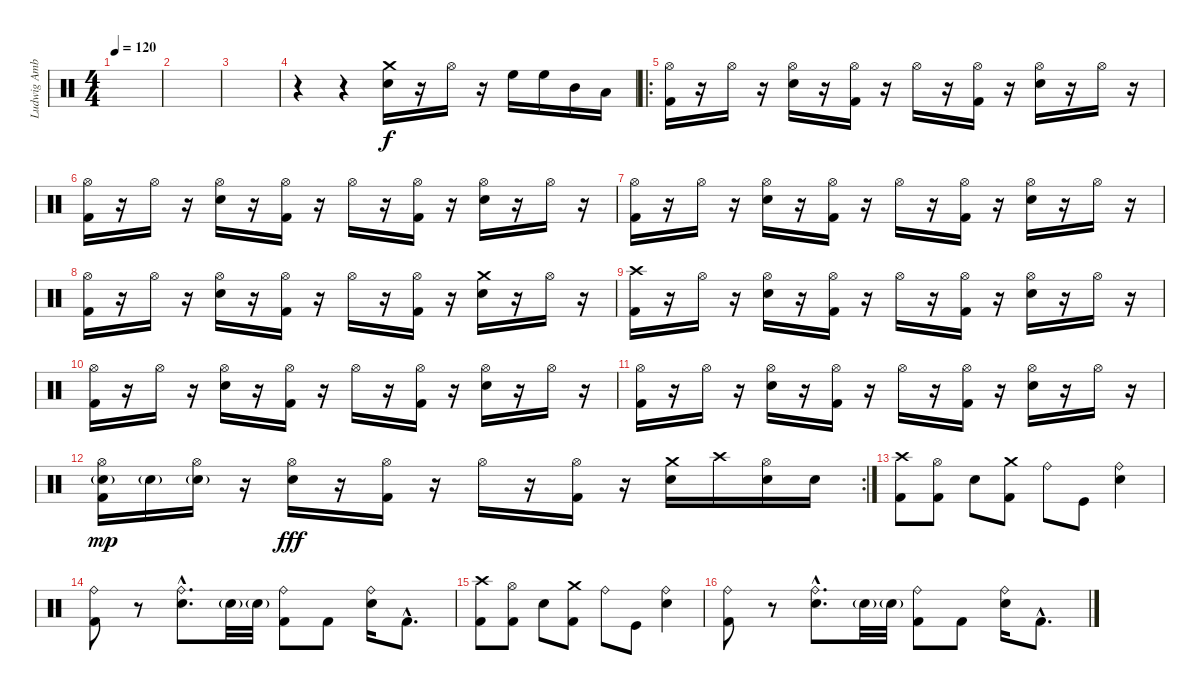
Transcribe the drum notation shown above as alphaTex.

\track ("Ludwig Amber Vistalite / 2x Bass Pedal" "Ludwig Amb") {instrument percussion}
\staff {score}
\articulation defaults
\ts (4 4)
\tempo 120
\clef neutral
\ks c
|
|
|
r.4 r.4 ("Crash medium (hit)" "Electric Snare (hit)").16{balance 0} r.16 "Hi-Hat (open)".16 r.16{balance 0} "High Floor Tom (hit)".16 "High Floor Tom (hit)".16 "Mid Tom (hit)".16 "Low Tom (hit)".16 |
\ro
("Kick (hit) 2" "Hi-Hat (open)").16{balance 5} r.16 "Hi-Hat (open)".16 r.16 ("Electric Snare (hit)" "Hi-Hat (open)").16 r.16 ("Kick (hit) 2" "Hi-Hat (open)").16 r.16 "Hi-Hat (open)".16 r.16 ("Kick (hit) 2" "Hi-Hat (open)").16 r.16 ("Electric Snare (hit)" "Hi-Hat (open)").16 r.16 "Hi-Hat (open)".16 r.16 |
("Kick (hit) 2" "Hi-Hat (open)").16 r.16 "Hi-Hat (open)".16 r.16 ("Electric Snare (hit)" "Hi-Hat (open)").16 r.16 ("Kick (hit) 2" "Hi-Hat (open)").16 r.16 "Hi-Hat (open)".16 r.16 ("Kick (hit) 2" "Hi-Hat (open)").16 r.16 ("Electric Snare (hit)" "Hi-Hat (open)").16 r.16 "Hi-Hat (open)".16 r.16 |
("Kick (hit) 2" "Hi-Hat (open)").16 r.16 "Hi-Hat (open)".16 r.16 ("Electric Snare (hit)" "Hi-Hat (open)").16 r.16 ("Kick (hit) 2" "Hi-Hat (open)").16 r.16 "Hi-Hat (open)".16 r.16 ("Kick (hit) 2" "Hi-Hat (open)").16 r.16 ("Electric Snare (hit)" "Hi-Hat (open)").16 r.16 "Hi-Hat (open)".16 r.16 |
("Kick (hit) 2" "Hi-Hat (open)").16 r.16 "Hi-Hat (open)".16 r.16 ("Electric Snare (hit)" "Hi-Hat (open)").16 r.16 ("Kick (hit) 2" "Hi-Hat (open)").16 r.16 "Hi-Hat (open)".16 r.16 ("Kick (hit) 2" "Hi-Hat (open)").16 r.16 ("Electric Snare (hit)" "Crash medium (hit)").16 r.16 "Hi-Hat (open)".16 r.16 |
("Kick (hit) 2" "Crash high (hit)").16 r.16 "Hi-Hat (open)".16 r.16 ("Electric Snare (hit)" "Hi-Hat (open)").16 r.16 ("Kick (hit) 2" "Hi-Hat (open)").16 r.16 "Hi-Hat (open)".16 r.16 ("Kick (hit) 2" "Hi-Hat (open)").16 r.16 ("Electric Snare (hit)" "Hi-Hat (open)").16 r.16 "Hi-Hat (open)".16 r.16 |
("Kick (hit) 2" "Hi-Hat (open)").16 r.16 "Hi-Hat (open)".16 r.16 ("Electric Snare (hit)" "Hi-Hat (open)").16 r.16 ("Kick (hit) 2" "Hi-Hat (open)").16 r.16 "Hi-Hat (open)".16 r.16 ("Kick (hit) 2" "Hi-Hat (open)").16 r.16 ("Electric Snare (hit)" "Hi-Hat (open)").16 r.16 "Hi-Hat (open)".16 r.16 |
("Kick (hit) 2" "Hi-Hat (open)").16 r.16 "Hi-Hat (open)".16 r.16 ("Electric Snare (hit)" "Hi-Hat (open)").16 r.16 ("Kick (hit) 2" "Hi-Hat (open)").16 r.16 "Hi-Hat (open)".16 r.16 ("Kick (hit) 2" "Hi-Hat (open)").16 r.16 ("Electric Snare (hit)" "Hi-Hat (open)").16 r.16 "Hi-Hat (open)".16 r.16 |
\rc 2
("Kick (hit) 2" "Hi-Hat (open)" "Electric Snare (hit)"{g}).16{dy mp} "Electric Snare (hit)"{g}.16 ("Hi-Hat (open)" "Electric Snare (hit)"{g}).16 r.16 ("Electric Snare (hit)" "Hi-Hat (open)").16{dy fff} r.16 ("Kick (hit) 2" "Hi-Hat (open)").16 r.16 "Hi-Hat (open)".16 r.16 ("Kick (hit) 2" "Hi-Hat (open)").16 r.16 ("Electric Snare (hit)" "Crash medium (hit)").16 "Crash high (hit)".16 ("Hi-Hat (open)" "Electric Snare (hit)").16 "Electric Snare (hit)".16 |
("Crash high (hit)" "Kick (hit) 2").8 ("Hi-Hat (open)" "Kick (hit) 2").8 "Electric Snare (hit)".8 ("Crash medium (hit)" "Kick (hit) 2").8 "Ride (bell)".8 "Kick (hit)".8 ("Ride (bell)" "Electric Snare (hit)").4 |
("Ride (bell)" "Kick (hit) 2").8 r.8 ("Ride (bell)"{hac} "Electric Snare (hit)"{hac}).8{d} "Electric Snare (hit)"{g}.32 "Electric Snare (hit)"{g}.32 ("Ride (bell)" "Kick (hit) 2").8 "Kick (hit) 2".8 ("Ride (bell)" "Electric Snare (hit)").16 "Kick (hit) 2"{hac}.8{d} |
("Crash high (hit)" "Kick (hit) 2").8 ("Hi-Hat (open)" "Kick (hit) 2").8 "Electric Snare (hit)".8 ("Crash medium (hit)" "Kick (hit) 2").8 "Ride (bell)".8 "Kick (hit)".8 ("Ride (bell)" "Electric Snare (hit)").4 |
("Ride (bell)" "Kick (hit) 2").8 r.8 ("Ride (bell)"{hac} "Electric Snare (hit)"{hac}).8{d} "Electric Snare (hit)"{g}.32 "Electric Snare (hit)"{g}.32 ("Ride (bell)" "Kick (hit) 2").8 "Kick (hit) 2".8 ("Ride (bell)" "Electric Snare (hit)").16 "Kick (hit) 2"{hac}.8{d}
